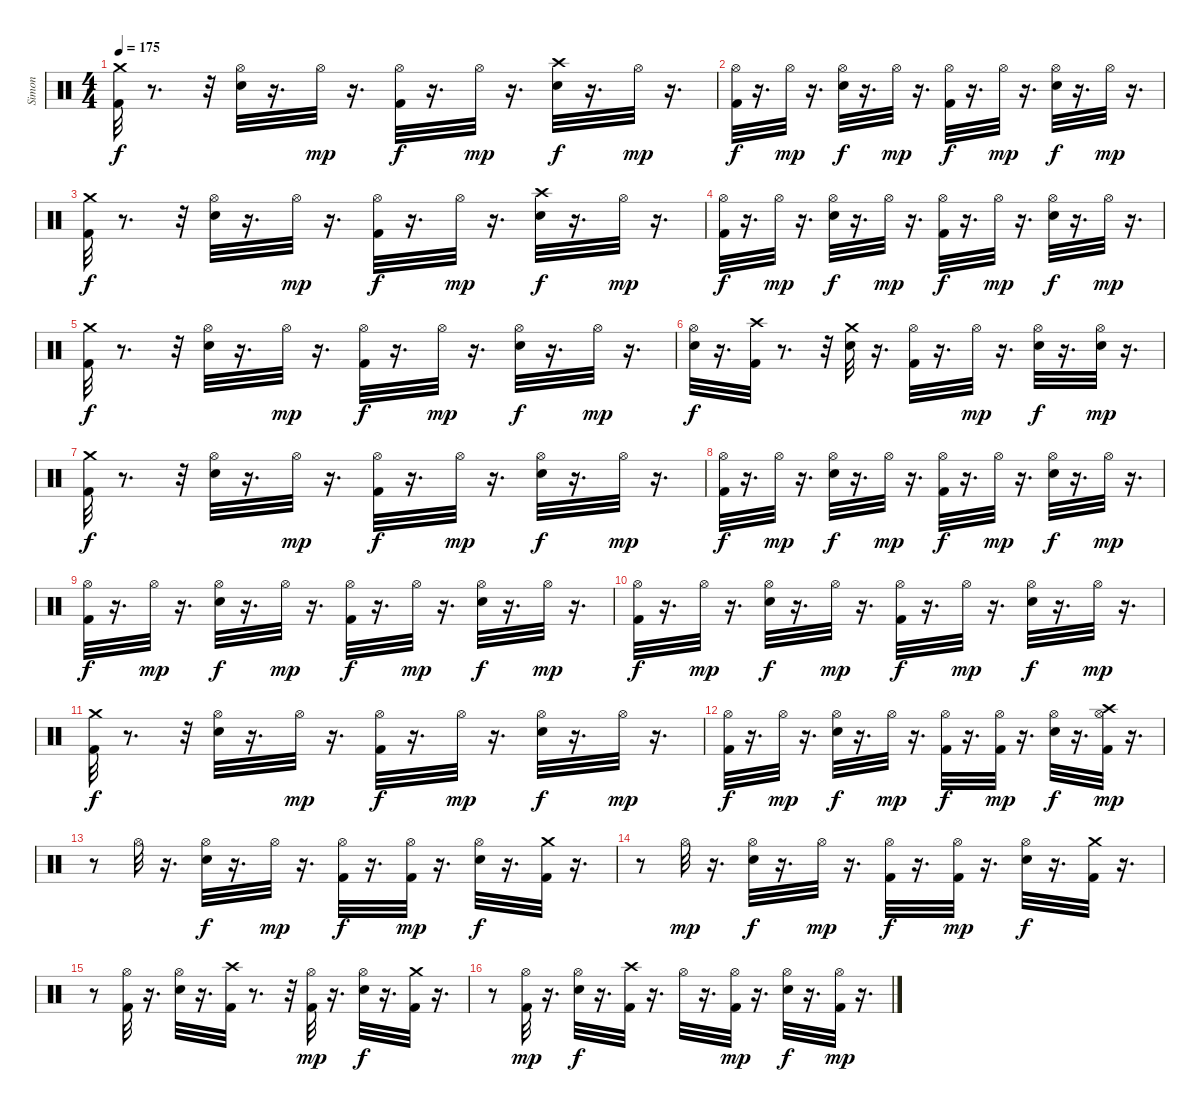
\track ("Simon" "Simon") {instrument percussion}
\staff {score}
\articulation defaults
\ts (4 4)
\tempo 175
\clef neutral
\ks c
("Crash medium (hit)" "Kick (hit) 2").32{dy f} r.8{d} r.32 ("Hi-Hat (open)" "Electric Snare (hit)").32 r.16{d} "Hi-Hat (open)".32{dy mp} r.16{d} ("Hi-Hat (open)" "Kick (hit) 2").32{dy f} r.16{d} "Hi-Hat (open)".32{dy mp} r.16{d} ("Crash high (hit)" "Electric Snare (hit)").32{dy f} r.16{d} "Hi-Hat (open)".32{dy mp} r.16{d} |
("Hi-Hat (open)" "Kick (hit) 2").32{dy f} r.16{d} "Hi-Hat (open)".32{dy mp} r.16{d} ("Hi-Hat (open)" "Electric Snare (hit)").32{dy f} r.16{d} "Hi-Hat (open)".32{dy mp} r.16{d} ("Hi-Hat (open)" "Kick (hit) 2").32{dy f} r.16{d} "Hi-Hat (open)".32{dy mp} r.16{d} ("Hi-Hat (open)" "Electric Snare (hit)").32{dy f} r.16{d} "Hi-Hat (open)".32{dy mp} r.16{d} |
("Crash medium (hit)" "Kick (hit) 2").32{dy f} r.8{d} r.32 ("Hi-Hat (open)" "Electric Snare (hit)").32 r.16{d} "Hi-Hat (open)".32{dy mp} r.16{d} ("Hi-Hat (open)" "Kick (hit) 2").32{dy f} r.16{d} "Hi-Hat (open)".32{dy mp} r.16{d} ("Crash high (hit)" "Electric Snare (hit)").32{dy f} r.16{d} "Hi-Hat (open)".32{dy mp} r.16{d} |
("Hi-Hat (open)" "Kick (hit) 2").32{dy f} r.16{d} "Hi-Hat (open)".32{dy mp} r.16{d} ("Hi-Hat (open)" "Electric Snare (hit)").32{dy f} r.16{d} "Hi-Hat (open)".32{dy mp} r.16{d} ("Hi-Hat (open)" "Kick (hit) 2").32{dy f} r.16{d} "Hi-Hat (open)".32{dy mp} r.16{d} ("Hi-Hat (open)" "Electric Snare (hit)").32{dy f} r.16{d} "Hi-Hat (open)".32{dy mp} r.16{d} |
("Crash medium (hit)" "Kick (hit) 2").32{dy f} r.8{d} r.32 ("Hi-Hat (open)" "Electric Snare (hit)").32 r.16{d} "Hi-Hat (open)".32{dy mp} r.16{d} ("Hi-Hat (open)" "Kick (hit) 2").32{dy f} r.16{d} "Hi-Hat (open)".32{dy mp} r.16{d} ("Hi-Hat (open)" "Electric Snare (hit)").32{dy f} r.16{d} "Hi-Hat (open)".32{dy mp} r.16{d} |
("Electric Snare (hit)" "Hi-Hat (open)").32{dy f} r.16{d} ("Crash high (hit)" "Kick (hit) 2").32 r.8{d} r.32 ("Crash medium (hit)" "Electric Snare (hit)").32 r.16{d} ("Kick (hit) 2" "Hi-Hat (open)").32 r.16{d} "Hi-Hat (open)".32{dy mp} r.16{d} ("Hi-Hat (open)" "Electric Snare (hit)").32{dy f} r.16{d} ("Electric Snare (hit)" "Hi-Hat (open)").32{dy mp} r.16{d} |
("Crash medium (hit)" "Kick (hit) 2").32{dy f} r.8{d} r.32 ("Hi-Hat (open)" "Electric Snare (hit)").32 r.16{d} "Hi-Hat (open)".32{dy mp} r.16{d} ("Hi-Hat (open)" "Kick (hit) 2").32{dy f} r.16{d} "Hi-Hat (open)".32{dy mp} r.16{d} ("Hi-Hat (open)" "Electric Snare (hit)").32{dy f} r.16{d} "Hi-Hat (open)".32{dy mp} r.16{d} |
("Hi-Hat (open)" "Kick (hit) 2").32{dy f} r.16{d} "Hi-Hat (open)".32{dy mp} r.16{d} ("Hi-Hat (open)" "Electric Snare (hit)").32{dy f} r.16{d} "Hi-Hat (open)".32{dy mp} r.16{d} ("Hi-Hat (open)" "Kick (hit) 2").32{dy f} r.16{d} "Hi-Hat (open)".32{dy mp} r.16{d} ("Hi-Hat (open)" "Electric Snare (hit)").32{dy f} r.16{d} "Hi-Hat (open)".32{dy mp} r.16{d} |
("Hi-Hat (open)" "Kick (hit) 2").32{dy f} r.16{d} "Hi-Hat (open)".32{dy mp} r.16{d} ("Hi-Hat (open)" "Electric Snare (hit)").32{dy f} r.16{d} "Hi-Hat (open)".32{dy mp} r.16{d} ("Hi-Hat (open)" "Kick (hit) 2").32{dy f} r.16{d} "Hi-Hat (open)".32{dy mp} r.16{d} ("Hi-Hat (open)" "Electric Snare (hit)").32{dy f} r.16{d} "Hi-Hat (open)".32{dy mp} r.16{d} |
("Hi-Hat (open)" "Kick (hit) 2").32{dy f} r.16{d} "Hi-Hat (open)".32{dy mp} r.16{d} ("Hi-Hat (open)" "Electric Snare (hit)").32{dy f} r.16{d} "Hi-Hat (open)".32{dy mp} r.16{d} ("Hi-Hat (open)" "Kick (hit) 2").32{dy f} r.16{d} "Hi-Hat (open)".32{dy mp} r.16{d} ("Hi-Hat (open)" "Electric Snare (hit)").32{dy f} r.16{d} "Hi-Hat (open)".32{dy mp} r.16{d} |
("Crash medium (hit)" "Kick (hit) 2").32{dy f} r.8{d} r.32 ("Hi-Hat (open)" "Electric Snare (hit)").32 r.16{d} "Hi-Hat (open)".32{dy mp} r.16{d} ("Hi-Hat (open)" "Kick (hit) 2").32{dy f} r.16{d} "Hi-Hat (open)".32{dy mp} r.16{d} ("Hi-Hat (open)" "Electric Snare (hit)").32{dy f} r.16{d} "Hi-Hat (open)".32{dy mp} r.16{d} |
("Hi-Hat (open)" "Kick (hit) 2").32{dy f} r.16{d} "Hi-Hat (open)".32{dy mp} r.16{d} ("Hi-Hat (open)" "Electric Snare (hit)").32{dy f} r.16{d} "Hi-Hat (open)".32{dy mp} r.16{d} ("Hi-Hat (open)" "Kick (hit) 2").32{dy f} r.16{d} ("Kick (hit) 2" "Hi-Hat (open)").32{dy mp} r.16{d} ("Hi-Hat (open)" "Electric Snare (hit)").32{dy f} r.16{d} ("Hi-Hat (open)" "Crash high (hit)" "Kick (hit) 2").32{dy mp} r.16{d} |
r.8 "Hi-Hat (open)".32 r.16{d} ("Hi-Hat (open)" "Electric Snare (hit)").32{dy f} r.16{d} "Hi-Hat (open)".32{dy mp} r.16{d} ("Hi-Hat (open)" "Kick (hit) 2").32{dy f} r.16{d} ("Hi-Hat (open)" "Kick (hit) 2").32{dy mp} r.16{d} ("Hi-Hat (open)" "Electric Snare (hit)").32{dy f} r.16{d} ("Crash medium (hit)" "Kick (hit) 2").32 r.16{d} |
r.8 "Hi-Hat (open)".32{dy mp} r.16{d} ("Hi-Hat (open)" "Electric Snare (hit)").32{dy f} r.16{d} "Hi-Hat (open)".32{dy mp} r.16{d} ("Hi-Hat (open)" "Kick (hit) 2").32{dy f} r.16{d} ("Hi-Hat (open)" "Kick (hit) 2").32{dy mp} r.16{d} ("Hi-Hat (open)" "Electric Snare (hit)").32{dy f} r.16{d} ("Crash medium (hit)" "Kick (hit) 2").32 r.16{d} |
r.8 ("Hi-Hat (open)" "Kick (hit) 2").32 r.16{d} ("Hi-Hat (open)" "Electric Snare (hit)").32 r.16{d} ("Crash high (hit)" "Kick (hit) 2").32 r.8{d} r.32 ("Hi-Hat (open)" "Kick (hit) 2").32{dy mp} r.16{d} ("Hi-Hat (open)" "Electric Snare (hit)").32{dy f} r.16{d} ("Crash medium (hit)" "Kick (hit) 2").32 r.16{d} |
r.8 ("Hi-Hat (open)" "Kick (hit) 2").32{dy mp} r.16{d} ("Hi-Hat (open)" "Electric Snare (hit)").32{dy f} r.16{d} ("Crash high (hit)" "Kick (hit) 2").32 r.16{d} "Hi-Hat (open)".32 r.16{d} ("Hi-Hat (open)" "Kick (hit) 2").32{dy mp} r.16{d} ("Hi-Hat (open)" "Electric Snare (hit)").32{dy f} r.16{d} ("Hi-Hat (open)" "Kick (hit) 2").32{dy mp} r.16{d}
